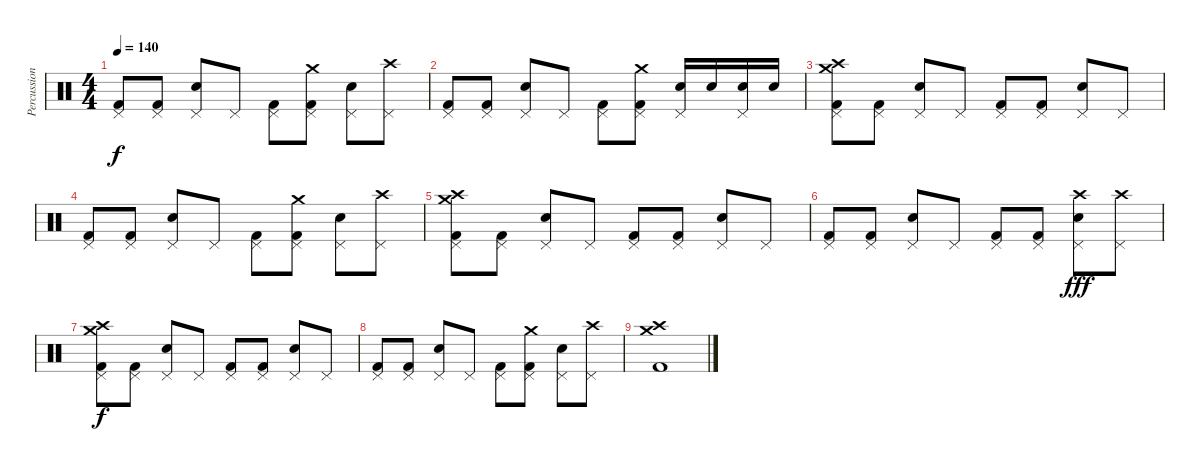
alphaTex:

\track ("Percussion" "Percussion") {instrument percussion}
\staff {score}
\articulation defaults
\ts (4 4)
\tempo 140
\clef neutral
\ks c
("Pedal Hi-Hat (hit)" "Kick (hit) 2").8{dy f} ("Pedal Hi-Hat (hit)" "Kick (hit) 2").8 ("Pedal Hi-Hat (hit)" "Electric Snare (hit)").8 "Pedal Hi-Hat (hit)".8 ("Pedal Hi-Hat (hit)" "Kick (hit) 2").8 ("Pedal Hi-Hat (hit)" "Kick (hit) 2" "Crash medium (hit)").8 ("Pedal Hi-Hat (hit)" "Electric Snare (hit)").8 ("Pedal Hi-Hat (hit)" "Crash high (hit)").8 |
("Pedal Hi-Hat (hit)" "Kick (hit) 2").8 ("Pedal Hi-Hat (hit)" "Kick (hit) 2").8 ("Pedal Hi-Hat (hit)" "Electric Snare (hit)").8 "Pedal Hi-Hat (hit)".8 ("Pedal Hi-Hat (hit)" "Kick (hit) 2").8 ("Pedal Hi-Hat (hit)" "Kick (hit) 2" "Crash medium (hit)").8 ("Pedal Hi-Hat (hit)" "Electric Snare (hit)").16 "Electric Snare (hit)".16 ("Pedal Hi-Hat (hit)" "Electric Snare (hit)").16 "Electric Snare (hit)".16 |
("Pedal Hi-Hat (hit)" "Kick (hit) 2" "Crash high (hit)" "Crash medium (hit)").8 ("Pedal Hi-Hat (hit)" "Kick (hit) 2").8 ("Pedal Hi-Hat (hit)" "Electric Snare (hit)").8 "Pedal Hi-Hat (hit)".8 ("Pedal Hi-Hat (hit)" "Kick (hit) 2").8 ("Pedal Hi-Hat (hit)" "Kick (hit) 2").8 ("Pedal Hi-Hat (hit)" "Electric Snare (hit)").8 "Pedal Hi-Hat (hit)".8 |
("Pedal Hi-Hat (hit)" "Kick (hit) 2").8 ("Pedal Hi-Hat (hit)" "Kick (hit) 2").8 ("Pedal Hi-Hat (hit)" "Electric Snare (hit)").8 "Pedal Hi-Hat (hit)".8 ("Pedal Hi-Hat (hit)" "Kick (hit) 2").8 ("Pedal Hi-Hat (hit)" "Kick (hit) 2" "Crash medium (hit)").8 ("Pedal Hi-Hat (hit)" "Electric Snare (hit)").8 ("Pedal Hi-Hat (hit)" "Crash high (hit)").8 |
("Pedal Hi-Hat (hit)" "Kick (hit) 2" "Crash high (hit)" "Crash medium (hit)").8 ("Pedal Hi-Hat (hit)" "Kick (hit) 2").8 ("Pedal Hi-Hat (hit)" "Electric Snare (hit)").8 "Pedal Hi-Hat (hit)".8 ("Pedal Hi-Hat (hit)" "Kick (hit) 2").8 ("Pedal Hi-Hat (hit)" "Kick (hit) 2").8 ("Pedal Hi-Hat (hit)" "Electric Snare (hit)").8 "Pedal Hi-Hat (hit)".8 |
("Pedal Hi-Hat (hit)" "Kick (hit) 2").8 ("Pedal Hi-Hat (hit)" "Kick (hit) 2").8 ("Pedal Hi-Hat (hit)" "Electric Snare (hit)").8 "Pedal Hi-Hat (hit)".8 ("Pedal Hi-Hat (hit)" "Kick (hit) 2").8 ("Pedal Hi-Hat (hit)" "Kick (hit) 2").8 ("Pedal Hi-Hat (hit)" "Electric Snare (hit)" "Crash high (hit)").8{dy fff} ("Pedal Hi-Hat (hit)" "Crash high (hit)").8 |
("Pedal Hi-Hat (hit)" "Kick (hit) 2" "Crash high (hit)" "Crash medium (hit)").8{dy f} ("Pedal Hi-Hat (hit)" "Kick (hit) 2").8 ("Pedal Hi-Hat (hit)" "Electric Snare (hit)").8 "Pedal Hi-Hat (hit)".8 ("Pedal Hi-Hat (hit)" "Kick (hit) 2").8 ("Pedal Hi-Hat (hit)" "Kick (hit) 2").8 ("Pedal Hi-Hat (hit)" "Electric Snare (hit)").8 "Pedal Hi-Hat (hit)".8 |
("Pedal Hi-Hat (hit)" "Kick (hit) 2").8 ("Pedal Hi-Hat (hit)" "Kick (hit) 2").8 ("Pedal Hi-Hat (hit)" "Electric Snare (hit)").8 "Pedal Hi-Hat (hit)".8 ("Pedal Hi-Hat (hit)" "Kick (hit) 2").8 ("Pedal Hi-Hat (hit)" "Kick (hit) 2" "Crash medium (hit)").8 ("Pedal Hi-Hat (hit)" "Electric Snare (hit)").8 ("Pedal Hi-Hat (hit)" "Crash high (hit)").8 |
("Kick (hit) 2" "Crash high (hit)" "Crash medium (hit)").1
